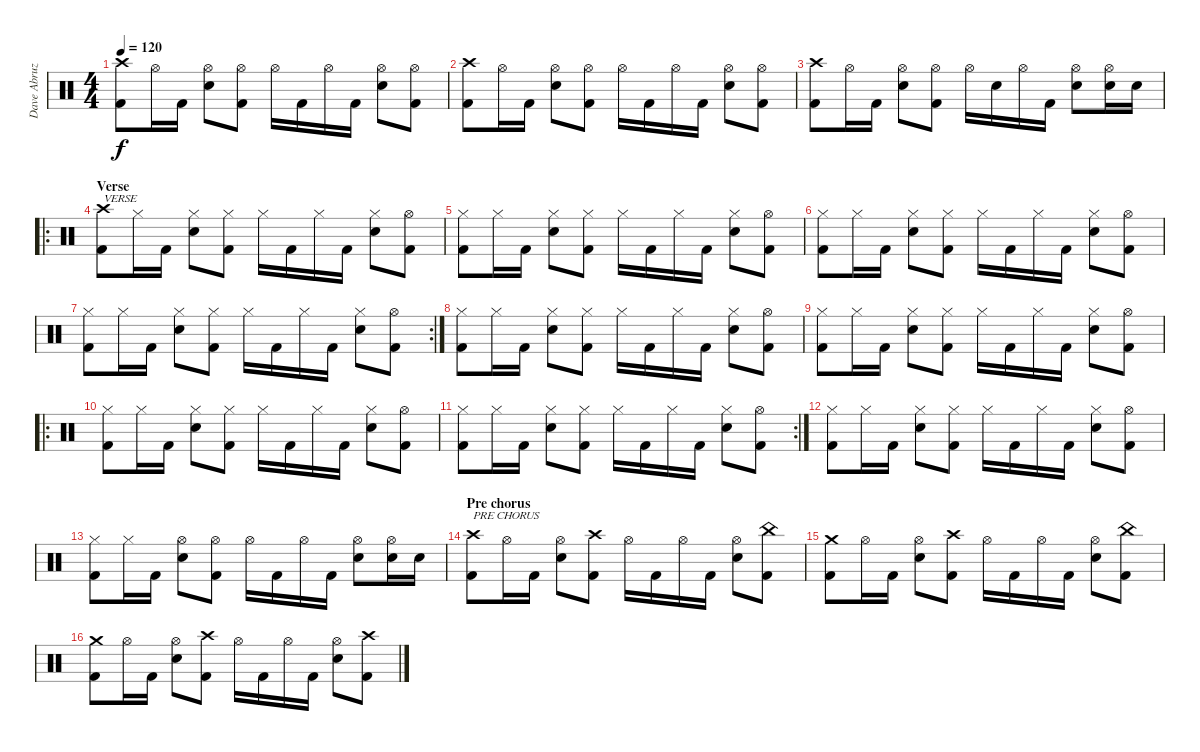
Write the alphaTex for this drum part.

\track ("Dave Abruzzesse" "Dave Abruz") {instrument percussion}
\staff {score}
\articulation defaults
\ts (4 4)
\tempo 120
\clef neutral
\ks c
("Crash high (hit)" "Kick (hit) 2").8{dy f} "Hi-Hat (open)".16 "Kick (hit) 2".16 ("Hi-Hat (open)" "Electric Snare (hit)").8 ("Hi-Hat (open)" "Kick (hit) 2").8 "Hi-Hat (open)".16 "Kick (hit) 2".16 "Hi-Hat (open)".16 "Kick (hit) 2".16 ("Hi-Hat (open)" "Electric Snare (hit)").8 ("Hi-Hat (open)" "Kick (hit) 2").8 |
("Crash high (hit)" "Kick (hit) 2").8 "Hi-Hat (open)".16 "Kick (hit) 2".16 ("Hi-Hat (open)" "Electric Snare (hit)").8 ("Hi-Hat (open)" "Kick (hit) 2").8 "Hi-Hat (open)".16 "Kick (hit) 2".16 "Hi-Hat (open)".16 "Kick (hit) 2".16 ("Hi-Hat (open)" "Electric Snare (hit)").8 ("Hi-Hat (open)" "Kick (hit) 2").8 |
("Crash high (hit)" "Kick (hit) 2").8 "Hi-Hat (open)".16 "Kick (hit) 2".16 ("Hi-Hat (open)" "Electric Snare (hit)").8 ("Hi-Hat (open)" "Kick (hit) 2").8 "Hi-Hat (open)".16 "Electric Snare (hit)".16 "Hi-Hat (open)".16 "Kick (hit) 2".16 ("Hi-Hat (open)" "Electric Snare (hit)").8 ("Hi-Hat (open)" "Electric Snare (hit)").16 "Electric Snare (hit)".16 |
\ro
\section ("" "Verse")
("Crash high (hit)" "Kick (hit) 2").8{txt "VERSE"} "Hi-Hat (closed)".16 "Kick (hit) 2".16 ("Hi-Hat (closed)" "Electric Snare (hit)").8 ("Hi-Hat (closed)" "Kick (hit) 2").8 "Hi-Hat (closed)".16 "Kick (hit) 2".16 "Hi-Hat (closed)".16 "Kick (hit) 2".16 ("Hi-Hat (closed)" "Electric Snare (hit)").8 ("Hi-Hat (open)" "Kick (hit) 2").8 |
("Hi-Hat (closed)" "Kick (hit) 2").8 "Hi-Hat (closed)".16 "Kick (hit) 2".16 ("Hi-Hat (closed)" "Electric Snare (hit)").8 ("Hi-Hat (closed)" "Kick (hit) 2").8 "Hi-Hat (closed)".16 "Kick (hit) 2".16 "Hi-Hat (closed)".16 "Kick (hit) 2".16 ("Hi-Hat (closed)" "Electric Snare (hit)").8 ("Hi-Hat (open)" "Kick (hit) 2").8 |
("Hi-Hat (closed)" "Kick (hit) 2").8 "Hi-Hat (closed)".16 "Kick (hit) 2".16 ("Hi-Hat (closed)" "Electric Snare (hit)").8 ("Hi-Hat (closed)" "Kick (hit) 2").8 "Hi-Hat (closed)".16 "Kick (hit) 2".16 "Hi-Hat (closed)".16 "Kick (hit) 2".16 ("Hi-Hat (closed)" "Electric Snare (hit)").8 ("Hi-Hat (open)" "Kick (hit) 2").8 |
\rc 2
("Hi-Hat (closed)" "Kick (hit) 2").8 "Hi-Hat (closed)".16 "Kick (hit) 2".16 ("Hi-Hat (closed)" "Electric Snare (hit)").8 ("Hi-Hat (closed)" "Kick (hit) 2").8 "Hi-Hat (closed)".16 "Kick (hit) 2".16 "Hi-Hat (closed)".16 "Kick (hit) 2".16 ("Hi-Hat (closed)" "Electric Snare (hit)").8 ("Hi-Hat (open)" "Kick (hit) 2").8 |
("Hi-Hat (closed)" "Kick (hit) 2").8 "Hi-Hat (closed)".16 "Kick (hit) 2".16 ("Hi-Hat (closed)" "Electric Snare (hit)").8 ("Hi-Hat (closed)" "Kick (hit) 2").8 "Hi-Hat (closed)".16 "Kick (hit) 2".16 "Hi-Hat (closed)".16 "Kick (hit) 2".16 ("Hi-Hat (closed)" "Electric Snare (hit)").8 ("Hi-Hat (open)" "Kick (hit) 2").8 |
("Hi-Hat (closed)" "Kick (hit) 2").8 "Hi-Hat (closed)".16 "Kick (hit) 2".16 ("Hi-Hat (closed)" "Electric Snare (hit)").8 ("Hi-Hat (closed)" "Kick (hit) 2").8 "Hi-Hat (closed)".16 "Kick (hit) 2".16 "Hi-Hat (closed)".16 "Kick (hit) 2".16 ("Hi-Hat (closed)" "Electric Snare (hit)").8 ("Hi-Hat (open)" "Kick (hit) 2").8 |
\ro
("Hi-Hat (closed)" "Kick (hit) 2").8 "Hi-Hat (closed)".16 "Kick (hit) 2".16 ("Hi-Hat (closed)" "Electric Snare (hit)").8 ("Hi-Hat (closed)" "Kick (hit) 2").8 "Hi-Hat (closed)".16 "Kick (hit) 2".16 "Hi-Hat (closed)".16 "Kick (hit) 2".16 ("Hi-Hat (closed)" "Electric Snare (hit)").8 ("Hi-Hat (open)" "Kick (hit) 2").8 |
\rc 2
("Hi-Hat (closed)" "Kick (hit) 2").8 "Hi-Hat (closed)".16 "Kick (hit) 2".16 ("Hi-Hat (closed)" "Electric Snare (hit)").8 ("Hi-Hat (closed)" "Kick (hit) 2").8 "Hi-Hat (closed)".16 "Kick (hit) 2".16 "Hi-Hat (closed)".16 "Kick (hit) 2".16 ("Hi-Hat (closed)" "Electric Snare (hit)").8 ("Hi-Hat (open)" "Kick (hit) 2").8 |
("Hi-Hat (closed)" "Kick (hit) 2").8 "Hi-Hat (closed)".16 "Kick (hit) 2".16 ("Hi-Hat (closed)" "Electric Snare (hit)").8 ("Hi-Hat (closed)" "Kick (hit) 2").8 "Hi-Hat (closed)".16 "Kick (hit) 2".16 "Hi-Hat (closed)".16 "Kick (hit) 2".16 ("Hi-Hat (closed)" "Electric Snare (hit)").8 ("Hi-Hat (open)" "Kick (hit) 2").8 |
("Hi-Hat (closed)" "Kick (hit) 2").8 "Hi-Hat (closed)".16 "Kick (hit) 2".16 ("Hi-Hat (open)" "Electric Snare (hit)").8 ("Hi-Hat (open)" "Kick (hit) 2").8 "Hi-Hat (open)".16 "Kick (hit) 2".16 "Hi-Hat (open)".16 "Kick (hit) 2".16 ("Hi-Hat (open)" "Electric Snare (hit)").8 ("Hi-Hat (open)" "Electric Snare (hit)").16 "Electric Snare (hit)".16 |
\section ("" "Pre chorus")
("Crash high (hit)" "Kick (hit) 2").8{txt "PRE CHORUS"} "Hi-Hat (open)".16 "Kick (hit) 2".16 ("Hi-Hat (open)" "Electric Snare (hit)").8 ("Crash high (hit)" "Kick (hit) 2").8 "Hi-Hat (open)".16 "Kick (hit) 2".16 "Hi-Hat (open)".16 "Kick (hit) 2".16 ("Hi-Hat (open)" "Electric Snare (hit)").8 ("China (hit)" "Kick (hit) 2").8 |
("Crash medium (hit)" "Kick (hit) 2").8 "Hi-Hat (open)".16 "Kick (hit) 2".16 ("Hi-Hat (open)" "Electric Snare (hit)").8 ("Crash high (hit)" "Kick (hit) 2").8 "Hi-Hat (open)".16 "Kick (hit) 2".16 "Hi-Hat (open)".16 "Kick (hit) 2".16 ("Hi-Hat (open)" "Electric Snare (hit)").8 ("China (hit)" "Kick (hit) 2").8 |
("Crash medium (hit)" "Kick (hit) 2").8 "Hi-Hat (open)".16 "Kick (hit) 2".16 ("Hi-Hat (open)" "Electric Snare (hit)").8 ("Crash high (hit)" "Kick (hit) 2").8 "Hi-Hat (open)".16 "Kick (hit) 2".16 "Hi-Hat (open)".16 "Kick (hit) 2".16 ("Hi-Hat (open)" "Electric Snare (hit)").8 ("Crash high (hit)" "Kick (hit) 2").8
